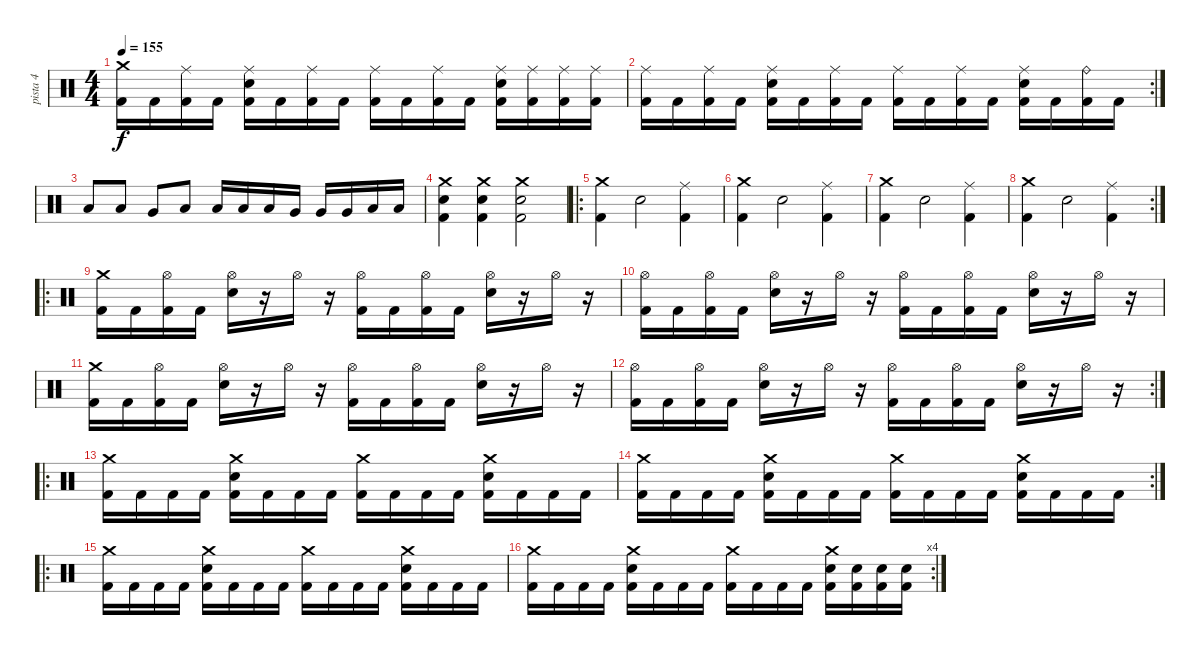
\track ("pista 4" "pista 4") {instrument percussion}
\staff {score}
\articulation defaults
\ts (4 4)
\tempo 155
\clef neutral
\ks c
("Crash medium (hit)" "Kick (hit) 2").16{dy f} "Kick (hit) 2".16 ("Ride (middle)" "Kick (hit) 2").16 "Kick (hit) 2".16 ("Ride (middle)" "Snare (hit) 2" "Kick (hit) 2").16 "Kick (hit) 2".16 ("Ride (middle)" "Kick (hit) 2").16 "Kick (hit) 2".16 ("Ride (middle)" "Kick (hit) 2").16 "Kick (hit) 2".16 ("Ride (middle)" "Kick (hit) 2").16 "Kick (hit) 2".16 ("Ride (middle)" "Snare (hit) 2" "Kick (hit) 2").16 ("Ride (middle)" "Kick (hit) 2").16 ("Ride (middle)" "Kick (hit) 2").16 ("Ride (middle)" "Kick (hit) 2").16 |
\rc 2
("Ride (middle)" "Kick (hit) 2").16 "Kick (hit) 2".16 ("Ride (middle)" "Kick (hit) 2").16 "Kick (hit) 2".16 ("Ride (middle)" "Snare (hit) 2" "Kick (hit) 2").16 "Kick (hit) 2".16 ("Ride (middle)" "Kick (hit) 2").16 "Kick (hit) 2".16 ("Ride (middle)" "Kick (hit) 2").16 "Kick (hit) 2".16 ("Ride (middle)" "Kick (hit) 2").16 "Kick (hit) 2".16 ("Ride (middle)" "Snare (hit) 2" "Kick (hit) 2").16 "Kick (hit) 2".16 ("Ride (bell)" "Kick (hit) 2").16 "Kick (hit) 2".16 |
"Low Tom (hit)".8 "Low Tom (hit)".8 "Very Low Tom (hit)".8 "Low Tom (hit)".8 "Low Tom (hit)".16 "Low Tom (hit)".16 "Low Tom (hit)".16 "Very Low Tom (hit)".16 "Very Low Tom (hit)".16 "Very Low Tom (hit)".16 "Low Floor Tom (hit)".16 "Low Floor Tom (hit)".16 |
("Crash medium (hit)" "Snare (hit) 2" "Kick (hit) 2").4 ("Crash medium (hit)" "Snare (hit) 2" "Kick (hit) 2").4 ("Crash medium (hit)" "Snare (hit) 2" "Kick (hit) 2").2 |
\ro
("Crash medium (hit)" "Kick (hit) 2").4 "Snare (hit) 2".2 ("Ride (middle)" "Kick (hit) 2").4 |
("Crash medium (hit)" "Kick (hit) 2").4 "Snare (hit) 2".2 ("Ride (middle)" "Kick (hit) 2").4 |
("Crash medium (hit)" "Kick (hit) 2").4 "Snare (hit) 2".2 ("Ride (middle)" "Kick (hit) 2").4 |
\rc 2
("Crash medium (hit)" "Kick (hit) 2").4 "Snare (hit) 2".2 ("Ride (middle)" "Kick (hit) 2").4 |
\ro
("Crash medium (hit)" "Kick (hit) 2").16 "Kick (hit) 2".16 ("Hi-Hat (open)" "Kick (hit) 2").16 "Kick (hit) 2".16 ("Hi-Hat (open)" "Snare (hit) 2").16 r.16 "Hi-Hat (open)".16 r.16 ("Hi-Hat (open)" "Kick (hit) 2").16 "Kick (hit) 2".16 ("Hi-Hat (open)" "Kick (hit) 2").16 "Kick (hit) 2".16 ("Hi-Hat (open)" "Snare (hit) 2").16 r.16 "Hi-Hat (open)".16 r.16 |
("Hi-Hat (open)" "Kick (hit) 2").16 "Kick (hit) 2".16 ("Hi-Hat (open)" "Kick (hit) 2").16 "Kick (hit) 2".16 ("Hi-Hat (open)" "Snare (hit) 2").16 r.16 "Hi-Hat (open)".16 r.16 ("Hi-Hat (open)" "Kick (hit) 2").16 "Kick (hit) 2".16 ("Hi-Hat (open)" "Kick (hit) 2").16 "Kick (hit) 2".16 ("Hi-Hat (open)" "Snare (hit) 2").16 r.16 "Hi-Hat (open)".16 r.16 |
("Crash medium (hit)" "Kick (hit) 2").16 "Kick (hit) 2".16 ("Hi-Hat (open)" "Kick (hit) 2").16 "Kick (hit) 2".16 ("Hi-Hat (open)" "Snare (hit) 2").16 r.16 "Hi-Hat (open)".16 r.16 ("Hi-Hat (open)" "Kick (hit) 2").16 "Kick (hit) 2".16 ("Hi-Hat (open)" "Kick (hit) 2").16 "Kick (hit) 2".16 ("Hi-Hat (open)" "Snare (hit) 2").16 r.16 "Hi-Hat (open)".16 r.16 |
\rc 2
("Hi-Hat (open)" "Kick (hit) 2").16 "Kick (hit) 2".16 ("Hi-Hat (open)" "Kick (hit) 2").16 "Kick (hit) 2".16 ("Hi-Hat (open)" "Snare (hit) 2").16 r.16 "Hi-Hat (open)".16 r.16 ("Hi-Hat (open)" "Kick (hit) 2").16 "Kick (hit) 2".16 ("Hi-Hat (open)" "Kick (hit) 2").16 "Kick (hit) 2".16 ("Hi-Hat (open)" "Snare (hit) 2").16 r.16 "Hi-Hat (open)".16 r.16 |
\ro
("Crash medium (hit)" "Kick (hit) 2").16 "Kick (hit) 2".16 "Kick (hit) 2".16 "Kick (hit) 2".16 ("Crash medium (hit)" "Snare (hit) 2" "Kick (hit) 2").16 "Kick (hit) 2".16 "Kick (hit) 2".16 "Kick (hit) 2".16 ("Crash medium (hit)" "Kick (hit) 2").16 "Kick (hit) 2".16 "Kick (hit) 2".16 "Kick (hit) 2".16 ("Crash medium (hit)" "Snare (hit) 2" "Kick (hit) 2").16 "Kick (hit) 2".16 "Kick (hit) 2".16 "Kick (hit) 2".16 |
\rc 2
("Crash medium (hit)" "Kick (hit) 2").16 "Kick (hit) 2".16 "Kick (hit) 2".16 "Kick (hit) 2".16 ("Crash medium (hit)" "Snare (hit) 2" "Kick (hit) 2").16 "Kick (hit) 2".16 "Kick (hit) 2".16 "Kick (hit) 2".16 ("Crash medium (hit)" "Kick (hit) 2").16 "Kick (hit) 2".16 "Kick (hit) 2".16 "Kick (hit) 2".16 ("Crash medium (hit)" "Snare (hit) 2" "Kick (hit) 2").16 "Kick (hit) 2".16 "Kick (hit) 2".16 "Kick (hit) 2".16 |
\ro
("Crash medium (hit)" "Kick (hit) 2").16 "Kick (hit) 2".16 "Kick (hit) 2".16 "Kick (hit) 2".16 ("Crash medium (hit)" "Snare (hit) 2" "Kick (hit) 2").16 "Kick (hit) 2".16 "Kick (hit) 2".16 "Kick (hit) 2".16 ("Crash medium (hit)" "Kick (hit) 2").16 "Kick (hit) 2".16 "Kick (hit) 2".16 "Kick (hit) 2".16 ("Crash medium (hit)" "Snare (hit) 2" "Kick (hit) 2").16 "Kick (hit) 2".16 "Kick (hit) 2".16 "Kick (hit) 2".16 |
\rc 4
("Crash medium (hit)" "Kick (hit) 2").16 "Kick (hit) 2".16 "Kick (hit) 2".16 "Kick (hit) 2".16 ("Crash medium (hit)" "Snare (hit) 2" "Kick (hit) 2").16 "Kick (hit) 2".16 "Kick (hit) 2".16 "Kick (hit) 2".16 ("Crash medium (hit)" "Kick (hit) 2").16 "Kick (hit) 2".16 "Kick (hit) 2".16 "Kick (hit) 2".16 ("Crash medium (hit)" "Snare (hit) 2" "Kick (hit) 2").16 ("Snare (hit) 2" "Kick (hit) 2").16 ("Snare (hit) 2" "Kick (hit) 2").16 ("Snare (hit) 2" "Kick (hit) 2").16
